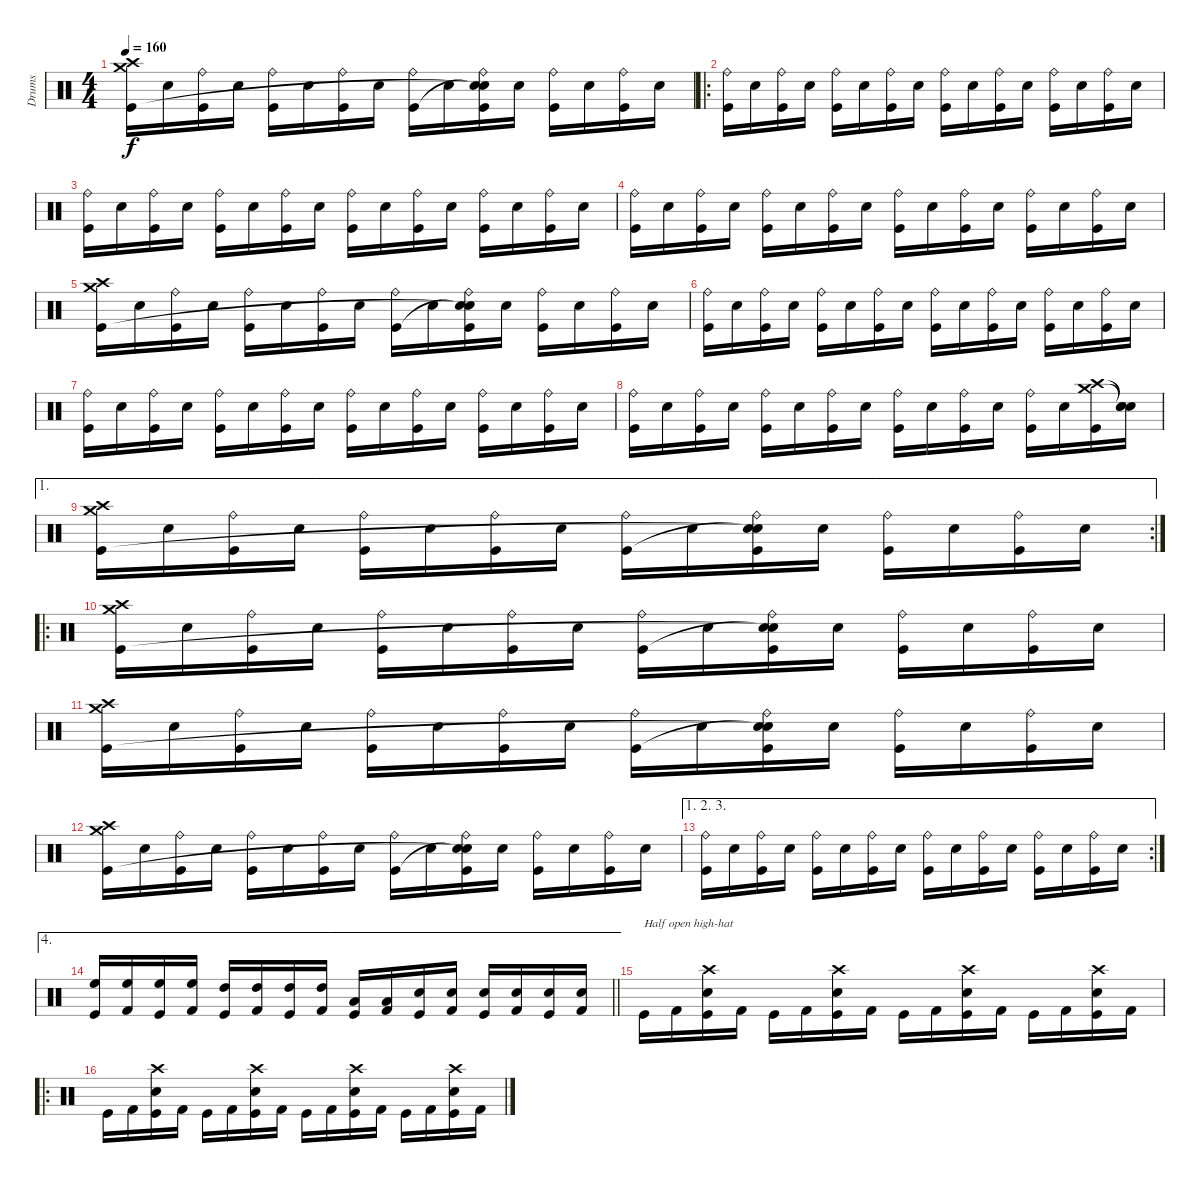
\track ("Drums" "Drums") {instrument percussion}
\staff {score}
\articulation defaults
\ts (4 4)
\tempo 160
\clef neutral
\ks c
("Crash medium (hit)" "Crash high (hit)" "Kick (hit)").16{dy f} "Snare (hit) 2".16 ("Ride (bell)" "Kick (hit)").16 "Snare (hit) 2".16 ("Ride (bell)" "Kick (hit)").16 "Snare (hit) 2".16 ("Ride (bell)" "Kick (hit)").16 "Snare (hit) 2".16 ("Ride (bell)" "Kick (hit)").16 "Snare (hit) 2".16 ("Ride (bell)" "Snare (hit)"{t} "Snare (hit)"{t} "Kick (hit)").16 "Snare (hit) 2".16 ("Ride (bell)" "Kick (hit)").16 "Snare (hit) 2".16 ("Ride (bell)" "Kick (hit)").16 "Snare (hit) 2".16 |
\ro
("Ride (bell)" "Kick (hit)").16 "Snare (hit) 2".16 ("Ride (bell)" "Kick (hit)").16 "Snare (hit) 2".16 ("Ride (bell)" "Kick (hit)").16 "Snare (hit) 2".16 ("Ride (bell)" "Kick (hit)").16 "Snare (hit) 2".16 ("Ride (bell)" "Kick (hit)").16 "Snare (hit) 2".16 ("Ride (bell)" "Kick (hit)").16 "Snare (hit) 2".16 ("Ride (bell)" "Kick (hit)").16 "Snare (hit) 2".16 ("Ride (bell)" "Kick (hit)").16 "Snare (hit) 2".16 |
("Ride (bell)" "Kick (hit)").16 "Snare (hit) 2".16 ("Ride (bell)" "Kick (hit)").16 "Snare (hit) 2".16 ("Ride (bell)" "Kick (hit)").16 "Snare (hit) 2".16 ("Ride (bell)" "Kick (hit)").16 "Snare (hit) 2".16 ("Ride (bell)" "Kick (hit)").16 "Snare (hit) 2".16 ("Ride (bell)" "Kick (hit)").16 "Snare (hit) 2".16 ("Ride (bell)" "Kick (hit)").16 "Snare (hit) 2".16 ("Ride (bell)" "Kick (hit)").16 "Snare (hit) 2".16 |
("Ride (bell)" "Kick (hit)").16 "Snare (hit) 2".16 ("Ride (bell)" "Kick (hit)").16 "Snare (hit) 2".16 ("Ride (bell)" "Kick (hit)").16 "Snare (hit) 2".16 ("Ride (bell)" "Kick (hit)").16 "Snare (hit) 2".16 ("Ride (bell)" "Kick (hit)").16 "Snare (hit) 2".16 ("Ride (bell)" "Kick (hit)").16 "Snare (hit) 2".16 ("Ride (bell)" "Kick (hit)").16 "Snare (hit) 2".16 ("Ride (bell)" "Kick (hit)").16 "Snare (hit) 2".16 |
("Crash medium (hit)" "Crash high (hit)" "Kick (hit)").16 "Snare (hit) 2".16 ("Ride (bell)" "Kick (hit)").16 "Snare (hit) 2".16 ("Ride (bell)" "Kick (hit)").16 "Snare (hit) 2".16 ("Ride (bell)" "Kick (hit)").16 "Snare (hit) 2".16 ("Ride (bell)" "Kick (hit)").16 "Snare (hit) 2".16 ("Ride (bell)" "Snare (hit)"{t} "Snare (hit)"{t} "Kick (hit)").16 "Snare (hit) 2".16 ("Ride (bell)" "Kick (hit)").16 "Snare (hit) 2".16 ("Ride (bell)" "Kick (hit)").16 "Snare (hit) 2".16 |
("Ride (bell)" "Kick (hit)").16 "Snare (hit) 2".16 ("Ride (bell)" "Kick (hit)").16 "Snare (hit) 2".16 ("Ride (bell)" "Kick (hit)").16 "Snare (hit) 2".16 ("Ride (bell)" "Kick (hit)").16 "Snare (hit) 2".16 ("Ride (bell)" "Kick (hit)").16 "Snare (hit) 2".16 ("Ride (bell)" "Kick (hit)").16 "Snare (hit) 2".16 ("Ride (bell)" "Kick (hit)").16 "Snare (hit) 2".16 ("Ride (bell)" "Kick (hit)").16 "Snare (hit) 2".16 |
("Ride (bell)" "Kick (hit)").16 "Snare (hit) 2".16 ("Ride (bell)" "Kick (hit)").16 "Snare (hit) 2".16 ("Ride (bell)" "Kick (hit)").16 "Snare (hit) 2".16 ("Ride (bell)" "Kick (hit)").16 "Snare (hit) 2".16 ("Ride (bell)" "Kick (hit)").16 "Snare (hit) 2".16 ("Ride (bell)" "Kick (hit)").16 "Snare (hit) 2".16 ("Ride (bell)" "Kick (hit)").16 "Snare (hit) 2".16 ("Ride (bell)" "Kick (hit)").16 "Snare (hit) 2".16 |
("Ride (bell)" "Kick (hit)").16 "Snare (hit) 2".16 ("Ride (bell)" "Kick (hit)").16 "Snare (hit) 2".16 ("Ride (bell)" "Kick (hit)").16 "Snare (hit) 2".16 ("Ride (bell)" "Kick (hit)").16 "Snare (hit) 2".16 ("Ride (bell)" "Kick (hit)").16 "Snare (hit) 2".16 ("Ride (bell)" "Kick (hit)").16 "Snare (hit) 2".16 ("Ride (bell)" "Kick (hit)").16 "Snare (hit) 2".16 ("Crash medium (hit)" "Crash high (hit)" "Kick (hit)").16 ("Snare (hit)"{t} "Snare (hit)"{t} "Snare (hit) 2").16 |
\ae 1
\rc 2
("Crash medium (hit)" "Crash high (hit)" "Kick (hit)").16 "Snare (hit) 2".16 ("Ride (bell)" "Kick (hit)").16 "Snare (hit) 2".16 ("Ride (bell)" "Kick (hit)").16 "Snare (hit) 2".16 ("Ride (bell)" "Kick (hit)").16 "Snare (hit) 2".16 ("Ride (bell)" "Kick (hit)").16 "Snare (hit) 2".16 ("Ride (bell)" "Snare (hit)"{t} "Snare (hit)"{t} "Kick (hit)").16 "Snare (hit) 2".16 ("Ride (bell)" "Kick (hit)").16 "Snare (hit) 2".16 ("Ride (bell)" "Kick (hit)").16 "Snare (hit) 2".16 |
\ro
("Crash medium (hit)" "Crash high (hit)" "Kick (hit)").16 "Snare (hit) 2".16 ("Ride (bell)" "Kick (hit)").16 "Snare (hit) 2".16 ("Ride (bell)" "Kick (hit)").16 "Snare (hit) 2".16 ("Ride (bell)" "Kick (hit)").16 "Snare (hit) 2".16 ("Ride (bell)" "Kick (hit)").16 "Snare (hit) 2".16 ("Ride (bell)" "Snare (hit)"{t} "Snare (hit)"{t} "Kick (hit)").16 "Snare (hit) 2".16 ("Ride (bell)" "Kick (hit)").16 "Snare (hit) 2".16 ("Ride (bell)" "Kick (hit)").16 "Snare (hit) 2".16 |
("Crash medium (hit)" "Crash high (hit)" "Kick (hit)").16 "Snare (hit) 2".16 ("Ride (bell)" "Kick (hit)").16 "Snare (hit) 2".16 ("Ride (bell)" "Kick (hit)").16 "Snare (hit) 2".16 ("Ride (bell)" "Kick (hit)").16 "Snare (hit) 2".16 ("Ride (bell)" "Kick (hit)").16 "Snare (hit) 2".16 ("Ride (bell)" "Snare (hit)"{t} "Snare (hit)"{t} "Kick (hit)").16 "Snare (hit) 2".16 ("Ride (bell)" "Kick (hit)").16 "Snare (hit) 2".16 ("Ride (bell)" "Kick (hit)").16 "Snare (hit) 2".16 |
("Crash medium (hit)" "Crash high (hit)" "Kick (hit)").16 "Snare (hit) 2".16 ("Ride (bell)" "Kick (hit)").16 "Snare (hit) 2".16 ("Ride (bell)" "Kick (hit)").16 "Snare (hit) 2".16 ("Ride (bell)" "Kick (hit)").16 "Snare (hit) 2".16 ("Ride (bell)" "Kick (hit)").16 "Snare (hit) 2".16 ("Ride (bell)" "Snare (hit)"{t} "Snare (hit)"{t} "Kick (hit)").16 "Snare (hit) 2".16 ("Ride (bell)" "Kick (hit)").16 "Snare (hit) 2".16 ("Ride (bell)" "Kick (hit)").16 "Snare (hit) 2".16 |
\ae (1 2 3)
\rc 2
("Ride (bell)" "Kick (hit)").16 "Snare (hit) 2".16 ("Ride (bell)" "Kick (hit)").16 "Snare (hit) 2".16 ("Ride (bell)" "Kick (hit)").16 "Snare (hit) 2".16 ("Ride (bell)" "Kick (hit)").16 "Snare (hit) 2".16 ("Ride (bell)" "Kick (hit)").16 "Snare (hit) 2".16 ("Ride (bell)" "Kick (hit)").16 "Snare (hit) 2".16 ("Ride (bell)" "Kick (hit)").16 "Snare (hit) 2".16 ("Ride (bell)" "Kick (hit)").16 "Snare (hit) 2".16 |
\ae 4
\barLineRight lightlight
("High Floor Tom (hit)" "Kick (hit)").16 ("High Floor Tom (hit)" "Kick (hit) 2").16 ("High Floor Tom (hit)" "Kick (hit)").16 ("High Floor Tom (hit)" "Kick (hit) 2").16 ("High Tom (hit)" "Kick (hit)").16 ("High Tom (hit)" "Kick (hit) 2").16 ("High Tom (hit)" "Kick (hit)").16 ("High Tom (hit)" "Kick (hit) 2").16 ("Low Tom (hit)" "Kick (hit)").16 ("Low Floor Tom (hit)" "Kick (hit) 2").16 ("Snare (hit) 2" "Kick (hit)").16 ("Snare (hit) 2" "Kick (hit) 2").16 ("Snare (hit) 2" "Kick (hit)").16 ("Snare (hit) 2" "Kick (hit) 2").16 ("Snare (hit) 2" "Kick (hit)").16 ("Snare (hit) 2" "Kick (hit) 2").16 |
"Kick (hit)".16{txt "Half open high-hat"} "Kick (hit) 2".16 ("Crash high (hit)" "Snare (hit) 2" "Kick (hit)").16 "Kick (hit) 2".16 "Kick (hit)".16 "Kick (hit) 2".16 ("Crash high (hit)" "Snare (hit) 2" "Kick (hit)").16 "Kick (hit) 2".16 "Kick (hit)".16 "Kick (hit) 2".16 ("Crash high (hit)" "Snare (hit) 2" "Kick (hit)").16 "Kick (hit) 2".16 "Kick (hit)".16 "Kick (hit) 2".16 ("Crash high (hit)" "Snare (hit) 2" "Kick (hit)").16 "Kick (hit) 2".16 |
\ro "Kick (hit)".16 "Kick (hit) 2".16
("Crash high (hit)" "Snare (hit) 2" "Kick (hit)").16 "Kick (hit) 2".16 "Kick (hit)".16 "Kick (hit) 2".16 ("Crash high (hit)" "Snare (hit) 2" "Kick (hit)").16 "Kick (hit) 2".16 "Kick (hit)".16 "Kick (hit) 2".16 ("Crash high (hit)" "Snare (hit) 2" "Kick (hit)").16 "Kick (hit) 2".16 "Kick (hit)".16 "Kick (hit) 2".16 ("Crash high (hit)" "Snare (hit) 2" "Kick (hit)").16 "Kick (hit) 2".16
